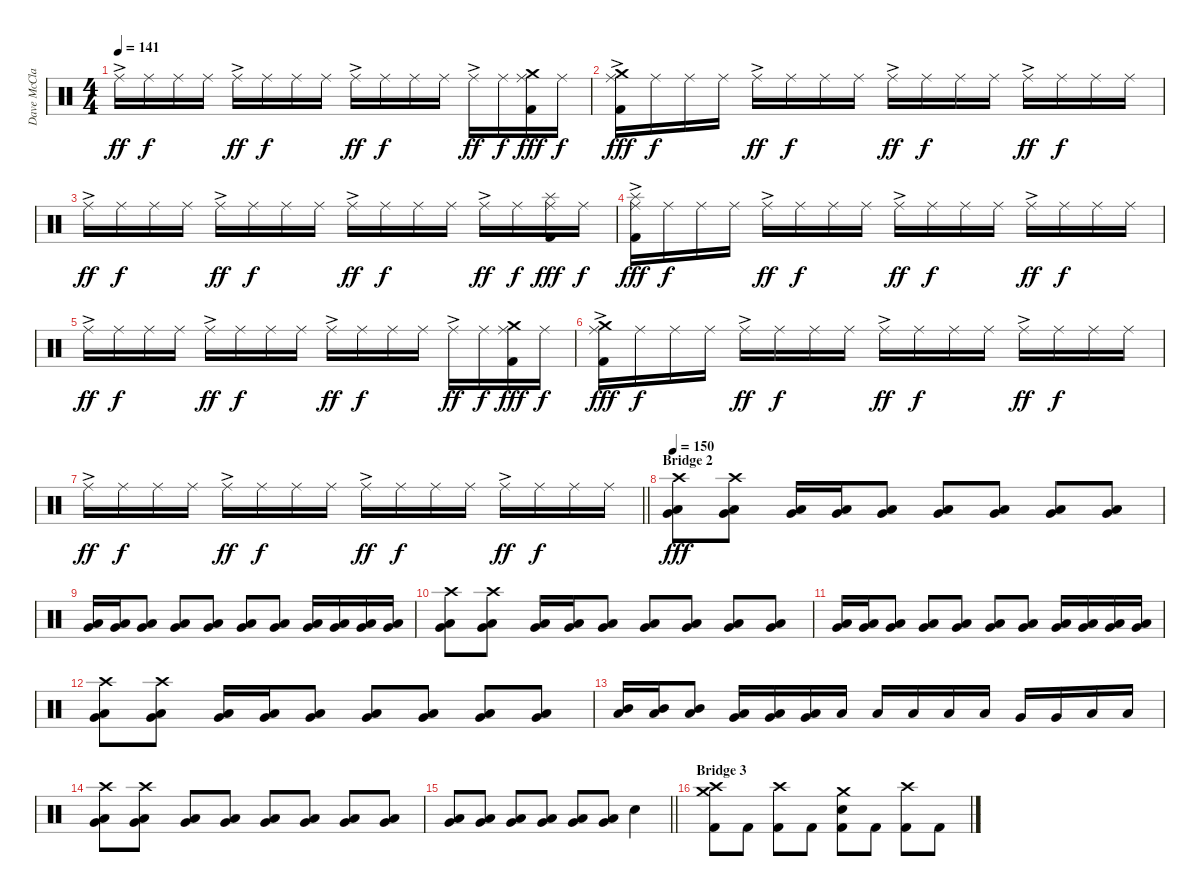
\track ("Dave McClain" "Dave McCla") {instrument percussion}
\staff {score}
\articulation defaults
\ts (4 4)
\tempo 141
\clef neutral
\ks c "Ride (middle)"{ac}.16{dy ff} "Ride (middle)".16{dy f} "Ride (middle)".16 "Ride (middle)".16 "Ride (middle)"{ac}.16{dy ff} "Ride (middle)".16{dy f} "Ride (middle)".16 "Ride (middle)".16 "Ride (middle)"{ac}.16{dy ff} "Ride (middle)".16{dy f} "Ride (middle)".16 "Ride (middle)".16 "Ride (middle)"{ac}.16{dy ff} "Ride (middle)".16{dy f}
("Ride (middle)" "Crash medium (hit)" "Kick (hit) 2").16{dy fff} "Ride (middle)".16{dy f} |
("Ride (middle)"{ac} "Crash medium (hit)" "Kick (hit) 2").16{dy fff} "Ride (middle)".16{dy f} "Ride (middle)".16 "Ride (middle)".16 "Ride (middle)"{ac}.16{dy ff} "Ride (middle)".16{dy f} "Ride (middle)".16 "Ride (middle)".16 "Ride (middle)"{ac}.16{dy ff} "Ride (middle)".16{dy f} "Ride (middle)".16 "Ride (middle)".16 "Ride (middle)"{ac}.16{dy ff} "Ride (middle)".16{dy f} "Ride (middle)".16 "Ride (middle)".16 |
"Ride (middle)"{ac}.16{dy ff} "Ride (middle)".16{dy f} "Ride (middle)".16 "Ride (middle)".16 "Ride (middle)"{ac}.16{dy ff} "Ride (middle)".16{dy f} "Ride (middle)".16 "Ride (middle)".16 "Ride (middle)"{ac}.16{dy ff} "Ride (middle)".16{dy f} "Ride (middle)".16 "Ride (middle)".16 "Ride (middle)"{ac}.16{dy ff} "Ride (middle)".16{dy f} ("Ride (middle)" "Splash (hit)" "Kick (hit) 2").16{dy fff} "Ride (middle)".16{dy f} |
("Ride (middle)"{ac} "Splash (hit)" "Kick (hit) 2").16{dy fff} "Ride (middle)".16{dy f} "Ride (middle)".16 "Ride (middle)".16 "Ride (middle)"{ac}.16{dy ff} "Ride (middle)".16{dy f} "Ride (middle)".16 "Ride (middle)".16 "Ride (middle)"{ac}.16{dy ff} "Ride (middle)".16{dy f} "Ride (middle)".16 "Ride (middle)".16 "Ride (middle)"{ac}.16{dy ff} "Ride (middle)".16{dy f} "Ride (middle)".16 "Ride (middle)".16 |
"Ride (middle)"{ac}.16{dy ff} "Ride (middle)".16{dy f} "Ride (middle)".16 "Ride (middle)".16 "Ride (middle)"{ac}.16{dy ff} "Ride (middle)".16{dy f} "Ride (middle)".16 "Ride (middle)".16 "Ride (middle)"{ac}.16{dy ff} "Ride (middle)".16{dy f} "Ride (middle)".16 "Ride (middle)".16 "Ride (middle)"{ac}.16{dy ff} "Ride (middle)".16{dy f} ("Ride (middle)" "Crash medium (hit)" "Kick (hit) 2").16{dy fff} "Ride (middle)".16{dy f} |
("Ride (middle)"{ac} "Crash medium (hit)" "Kick (hit) 2").16{dy fff} "Ride (middle)".16{dy f} "Ride (middle)".16 "Ride (middle)".16 "Ride (middle)"{ac}.16{dy ff} "Ride (middle)".16{dy f} "Ride (middle)".16 "Ride (middle)".16 "Ride (middle)"{ac}.16{dy ff} "Ride (middle)".16{dy f} "Ride (middle)".16 "Ride (middle)".16 "Ride (middle)"{ac}.16{dy ff} "Ride (middle)".16{dy f} "Ride (middle)".16 "Ride (middle)".16 |
\barLineRight lightlight "Ride (middle)"{ac}.16{dy ff} "Ride (middle)".16{dy f} "Ride (middle)".16 "Ride (middle)".16 "Ride (middle)"{ac}.16{dy ff} "Ride (middle)".16{dy f} "Ride (middle)".16 "Ride (middle)".16 "Ride (middle)"{ac}.16{dy ff} "Ride (middle)".16{dy f} "Ride (middle)".16 "Ride (middle)".16 "Ride (middle)"{ac}.16{dy ff} "Ride (middle)".16{dy f} "Ride (middle)".16 "Ride (middle)".16
|
\section ("" "Bridge 2")
\tempo 150
("Crash high (hit)" "Very Low Tom (hit)" "Low Floor Tom (hit)").8{dy fff} ("Crash high (hit)" "Very Low Tom (hit)" "Low Floor Tom (hit)").8 ("Low Tom (hit)" "Very Low Tom (hit)").16 ("Low Tom (hit)" "Very Low Tom (hit)").16 ("Low Tom (hit)" "Very Low Tom (hit)").8 ("Low Tom (hit)" "Very Low Tom (hit)").8 ("Low Tom (hit)" "Very Low Tom (hit)").8 ("Low Tom (hit)" "Very Low Tom (hit)").8 ("Low Tom (hit)" "Very Low Tom (hit)").8 |
("Very Low Tom (hit)" "Low Floor Tom (hit)").16 ("Very Low Tom (hit)" "Low Floor Tom (hit)").16 ("Very Low Tom (hit)" "Low Floor Tom (hit)").8 ("Low Tom (hit)" "Very Low Tom (hit)").8 ("Low Tom (hit)" "Very Low Tom (hit)").8 ("Low Tom (hit)" "Very Low Tom (hit)").8 ("Low Tom (hit)" "Very Low Tom (hit)").8 ("Very Low Tom (hit)" "Low Floor Tom (hit)").16 ("Very Low Tom (hit)" "Low Floor Tom (hit)").16 ("Very Low Tom (hit)" "Low Floor Tom (hit)").16 ("Very Low Tom (hit)" "Low Floor Tom (hit)").16 |
("Crash high (hit)" "Very Low Tom (hit)" "Low Floor Tom (hit)").8 ("Crash high (hit)" "Very Low Tom (hit)" "Low Floor Tom (hit)").8 ("Low Tom (hit)" "Very Low Tom (hit)").16 ("Low Tom (hit)" "Very Low Tom (hit)").16 ("Low Tom (hit)" "Very Low Tom (hit)").8 ("Low Tom (hit)" "Very Low Tom (hit)").8 ("Low Tom (hit)" "Very Low Tom (hit)").8 ("Low Tom (hit)" "Very Low Tom (hit)").8 ("Low Tom (hit)" "Very Low Tom (hit)").8 |
("Very Low Tom (hit)" "Low Floor Tom (hit)").16 ("Very Low Tom (hit)" "Low Floor Tom (hit)").16 ("Very Low Tom (hit)" "Low Floor Tom (hit)").8 ("Low Tom (hit)" "Very Low Tom (hit)").8 ("Low Tom (hit)" "Very Low Tom (hit)").8 ("Low Tom (hit)" "Very Low Tom (hit)").8 ("Low Tom (hit)" "Very Low Tom (hit)").8 ("Very Low Tom (hit)" "Low Floor Tom (hit)").16 ("Very Low Tom (hit)" "Low Floor Tom (hit)").16 ("Very Low Tom (hit)" "Low Floor Tom (hit)").16 ("Very Low Tom (hit)" "Low Floor Tom (hit)").16 |
("Crash high (hit)" "Very Low Tom (hit)" "Low Floor Tom (hit)").8 ("Crash high (hit)" "Very Low Tom (hit)" "Low Floor Tom (hit)").8 ("Low Tom (hit)" "Very Low Tom (hit)").16 ("Low Tom (hit)" "Very Low Tom (hit)").16 ("Low Tom (hit)" "Very Low Tom (hit)").8 ("Low Tom (hit)" "Very Low Tom (hit)").8 ("Low Tom (hit)" "Very Low Tom (hit)").8 ("Low Tom (hit)" "Very Low Tom (hit)").8 ("Low Tom (hit)" "Very Low Tom (hit)").8 |
("Mid Tom (hit)" "Low Tom (hit)").16 ("Mid Tom (hit)" "Low Tom (hit)").16 ("Mid Tom (hit)" "Low Tom (hit)").8 ("Low Tom (hit)" "Very Low Tom (hit)").16 ("Low Tom (hit)" "Very Low Tom (hit)").16 ("Low Tom (hit)" "Very Low Tom (hit)").16 "Low Floor Tom (hit)".16 "Low Floor Tom (hit)".16 "Low Floor Tom (hit)".16 "Low Tom (hit)".16 "Low Tom (hit)".16 "Very Low Tom (hit)".16 "Very Low Tom (hit)".16 "Low Floor Tom (hit)".16 "Low Floor Tom (hit)".16 |
("Crash high (hit)" "Very Low Tom (hit)" "Low Floor Tom (hit)").8 ("Crash high (hit)" "Very Low Tom (hit)" "Low Floor Tom (hit)").8 ("Very Low Tom (hit)" "Low Floor Tom (hit)").8 ("Very Low Tom (hit)" "Low Floor Tom (hit)").8 ("Very Low Tom (hit)" "Low Floor Tom (hit)").8 ("Very Low Tom (hit)" "Low Floor Tom (hit)").8 ("Very Low Tom (hit)" "Low Floor Tom (hit)").8 ("Very Low Tom (hit)" "Low Floor Tom (hit)").8 |
\barLineRight lightlight
("Very Low Tom (hit)" "Low Floor Tom (hit)").8 ("Very Low Tom (hit)" "Low Floor Tom (hit)").8 ("Very Low Tom (hit)" "Low Floor Tom (hit)").8 ("Very Low Tom (hit)" "Low Floor Tom (hit)").8 ("Very Low Tom (hit)" "Low Floor Tom (hit)").8 ("Very Low Tom (hit)" "Low Floor Tom (hit)").8 "Electric Snare (hit)".4 |
\section ("" "Bridge 3")
("Crash medium (hit)" "Crash high (hit)" "Kick (hit) 2").8 "Kick (hit) 2".8 ("Crash high (hit)" "Kick (hit) 2").8 "Kick (hit) 2".8 ("Crash medium (hit)" "Electric Snare (hit)" "Kick (hit) 2").8 "Kick (hit) 2".8 ("Crash high (hit)" "Kick (hit) 2").8 "Kick (hit) 2".8
